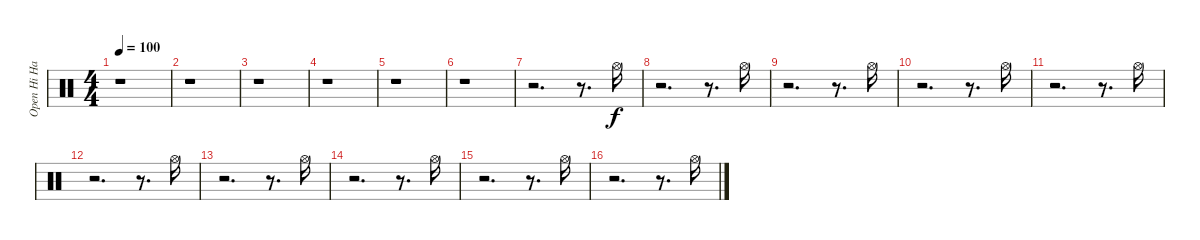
\track ("Open Hi Hat" "Open Hi Ha") {instrument percussion}
\staff {score}
\articulation defaults
\ts (4 4)
\tempo 100
\clef neutral
\ks c
r.1{dy f} |
r.1 |
r.1 |
r.1 |
r.1 |
r.1 |
r.2{d} r.8{d} "Hi-Hat (open)".16 |
r.2{d} r.8{d} "Hi-Hat (open)".16 |
r.2{d} r.8{d} "Hi-Hat (open)".16 |
r.2{d} r.8{d} "Hi-Hat (open)".16 |
r.2{d} r.8{d} "Hi-Hat (open)".16 |
r.2{d} r.8{d} "Hi-Hat (open)".16 |
r.2{d} r.8{d} "Hi-Hat (open)".16 |
r.2{d} r.8{d} "Hi-Hat (open)".16 |
r.2{d} r.8{d} "Hi-Hat (open)".16 |
r.2{d} r.8{d} "Hi-Hat (open)".16
